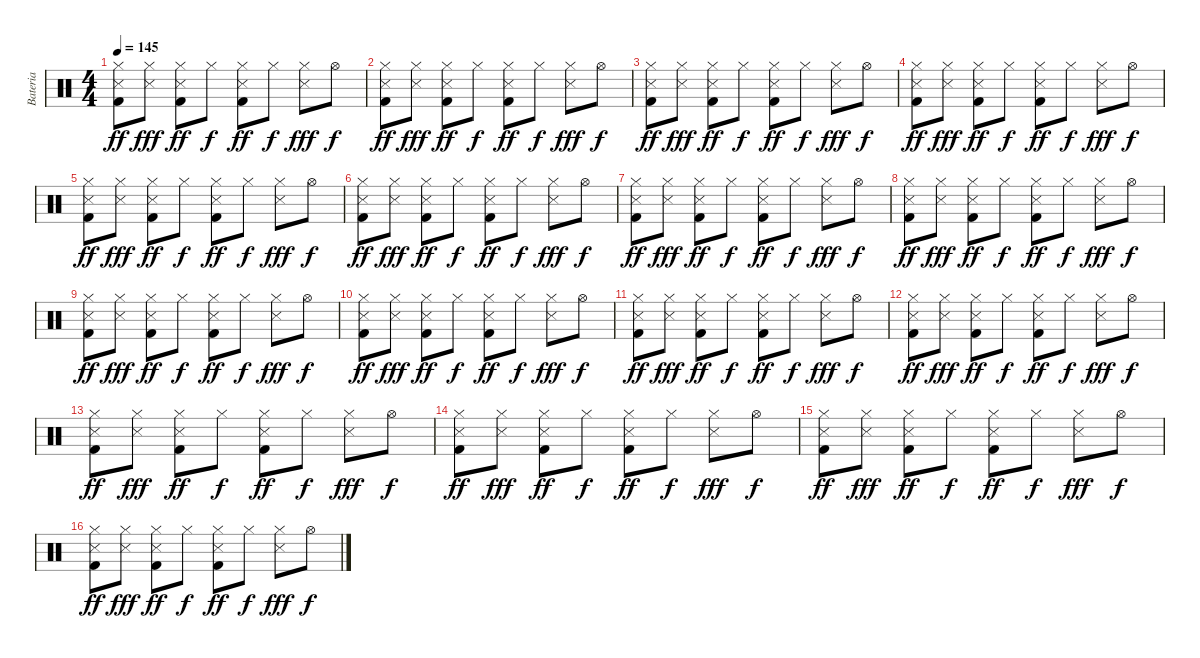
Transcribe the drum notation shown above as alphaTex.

\track ("Bateria" "Bateria") {instrument percussion}
\staff {score}
\articulation defaults
\ts (4 4)
\tempo 145
\clef neutral
\ks c
("Hi-Hat (closed)" "Snare (side stick) 3" "Kick (hit) 2").8{dy ff} ("Hi-Hat (closed)" "Snare (side stick) 3").8{dy fff} ("Hi-Hat (closed)" "Snare (side stick) 3" "Kick (hit) 2").8{dy ff} "Hi-Hat (closed)".8{dy f} ("Hi-Hat (closed)" "Snare (side stick) 3" "Kick (hit) 2").8{dy ff} "Hi-Hat (closed)".8{dy f} ("Hi-Hat (closed)" "Snare (side stick) 3").8{dy fff} "Hi-Hat (open)".8{dy f} |
("Hi-Hat (closed)" "Snare (side stick) 3" "Kick (hit) 2").8{dy ff} ("Hi-Hat (closed)" "Snare (side stick) 3").8{dy fff} ("Hi-Hat (closed)" "Snare (side stick) 3" "Kick (hit) 2").8{dy ff} "Hi-Hat (closed)".8{dy f} ("Hi-Hat (closed)" "Snare (side stick) 3" "Kick (hit) 2").8{dy ff} "Hi-Hat (closed)".8{dy f} ("Hi-Hat (closed)" "Snare (side stick) 3").8{dy fff} "Hi-Hat (open)".8{dy f} |
("Hi-Hat (closed)" "Snare (side stick) 3" "Kick (hit) 2").8{dy ff} ("Hi-Hat (closed)" "Snare (side stick) 3").8{dy fff} ("Hi-Hat (closed)" "Snare (side stick) 3" "Kick (hit) 2").8{dy ff} "Hi-Hat (closed)".8{dy f} ("Hi-Hat (closed)" "Snare (side stick) 3" "Kick (hit) 2").8{dy ff} "Hi-Hat (closed)".8{dy f} ("Hi-Hat (closed)" "Snare (side stick) 3").8{dy fff} "Hi-Hat (open)".8{dy f} |
("Hi-Hat (closed)" "Snare (side stick) 3" "Kick (hit) 2").8{dy ff} ("Hi-Hat (closed)" "Snare (side stick) 3").8{dy fff} ("Hi-Hat (closed)" "Snare (side stick) 3" "Kick (hit) 2").8{dy ff} "Hi-Hat (closed)".8{dy f} ("Hi-Hat (closed)" "Snare (side stick) 3" "Kick (hit) 2").8{dy ff} "Hi-Hat (closed)".8{dy f} ("Hi-Hat (closed)" "Snare (side stick) 3").8{dy fff} "Hi-Hat (open)".8{dy f} |
("Hi-Hat (closed)" "Snare (side stick) 3" "Kick (hit) 2").8{dy ff} ("Hi-Hat (closed)" "Snare (side stick) 3").8{dy fff} ("Hi-Hat (closed)" "Snare (side stick) 3" "Kick (hit) 2").8{dy ff} "Hi-Hat (closed)".8{dy f} ("Hi-Hat (closed)" "Snare (side stick) 3" "Kick (hit) 2").8{dy ff} "Hi-Hat (closed)".8{dy f} ("Hi-Hat (closed)" "Snare (side stick) 3").8{dy fff} "Hi-Hat (open)".8{dy f} |
("Hi-Hat (closed)" "Snare (side stick) 3" "Kick (hit) 2").8{dy ff} ("Hi-Hat (closed)" "Snare (side stick) 3").8{dy fff} ("Hi-Hat (closed)" "Snare (side stick) 3" "Kick (hit) 2").8{dy ff} "Hi-Hat (closed)".8{dy f} ("Hi-Hat (closed)" "Snare (side stick) 3" "Kick (hit) 2").8{dy ff} "Hi-Hat (closed)".8{dy f} ("Hi-Hat (closed)" "Snare (side stick) 3").8{dy fff} "Hi-Hat (open)".8{dy f} |
("Hi-Hat (closed)" "Snare (side stick) 3" "Kick (hit) 2").8{dy ff} ("Hi-Hat (closed)" "Snare (side stick) 3").8{dy fff} ("Hi-Hat (closed)" "Snare (side stick) 3" "Kick (hit) 2").8{dy ff} "Hi-Hat (closed)".8{dy f} ("Hi-Hat (closed)" "Snare (side stick) 3" "Kick (hit) 2").8{dy ff} "Hi-Hat (closed)".8{dy f} ("Hi-Hat (closed)" "Snare (side stick) 3").8{dy fff} "Hi-Hat (open)".8{dy f} |
("Hi-Hat (closed)" "Snare (side stick) 3" "Kick (hit) 2").8{dy ff} ("Hi-Hat (closed)" "Snare (side stick) 3").8{dy fff} ("Hi-Hat (closed)" "Snare (side stick) 3" "Kick (hit) 2").8{dy ff} "Hi-Hat (closed)".8{dy f} ("Hi-Hat (closed)" "Snare (side stick) 3" "Kick (hit) 2").8{dy ff} "Hi-Hat (closed)".8{dy f} ("Hi-Hat (closed)" "Snare (side stick) 3").8{dy fff} "Hi-Hat (open)".8{dy f} |
("Hi-Hat (closed)" "Snare (side stick) 3" "Kick (hit) 2").8{dy ff} ("Hi-Hat (closed)" "Snare (side stick) 3").8{dy fff} ("Hi-Hat (closed)" "Snare (side stick) 3" "Kick (hit) 2").8{dy ff} "Hi-Hat (closed)".8{dy f} ("Hi-Hat (closed)" "Snare (side stick) 3" "Kick (hit) 2").8{dy ff} "Hi-Hat (closed)".8{dy f} ("Hi-Hat (closed)" "Snare (side stick) 3").8{dy fff} "Hi-Hat (open)".8{dy f} |
("Hi-Hat (closed)" "Snare (side stick) 3" "Kick (hit) 2").8{dy ff} ("Hi-Hat (closed)" "Snare (side stick) 3").8{dy fff} ("Hi-Hat (closed)" "Snare (side stick) 3" "Kick (hit) 2").8{dy ff} "Hi-Hat (closed)".8{dy f} ("Hi-Hat (closed)" "Snare (side stick) 3" "Kick (hit) 2").8{dy ff} "Hi-Hat (closed)".8{dy f} ("Hi-Hat (closed)" "Snare (side stick) 3").8{dy fff} "Hi-Hat (open)".8{dy f} |
("Hi-Hat (closed)" "Snare (side stick) 3" "Kick (hit) 2").8{dy ff} ("Hi-Hat (closed)" "Snare (side stick) 3").8{dy fff} ("Hi-Hat (closed)" "Snare (side stick) 3" "Kick (hit) 2").8{dy ff} "Hi-Hat (closed)".8{dy f} ("Hi-Hat (closed)" "Snare (side stick) 3" "Kick (hit) 2").8{dy ff} "Hi-Hat (closed)".8{dy f} ("Hi-Hat (closed)" "Snare (side stick) 3").8{dy fff} "Hi-Hat (open)".8{dy f} |
("Hi-Hat (closed)" "Snare (side stick) 3" "Kick (hit) 2").8{dy ff} ("Hi-Hat (closed)" "Snare (side stick) 3").8{dy fff} ("Hi-Hat (closed)" "Snare (side stick) 3" "Kick (hit) 2").8{dy ff} "Hi-Hat (closed)".8{dy f} ("Hi-Hat (closed)" "Snare (side stick) 3" "Kick (hit) 2").8{dy ff} "Hi-Hat (closed)".8{dy f} ("Hi-Hat (closed)" "Snare (side stick) 3").8{dy fff} "Hi-Hat (open)".8{dy f} |
("Hi-Hat (closed)" "Snare (side stick) 3" "Kick (hit) 2").8{dy ff} ("Hi-Hat (closed)" "Snare (side stick) 3").8{dy fff} ("Hi-Hat (closed)" "Snare (side stick) 3" "Kick (hit) 2").8{dy ff} "Hi-Hat (closed)".8{dy f} ("Hi-Hat (closed)" "Snare (side stick) 3" "Kick (hit) 2").8{dy ff} "Hi-Hat (closed)".8{dy f} ("Hi-Hat (closed)" "Snare (side stick) 3").8{dy fff} "Hi-Hat (open)".8{dy f} |
("Hi-Hat (closed)" "Snare (side stick) 3" "Kick (hit) 2").8{dy ff} ("Hi-Hat (closed)" "Snare (side stick) 3").8{dy fff} ("Hi-Hat (closed)" "Snare (side stick) 3" "Kick (hit) 2").8{dy ff} "Hi-Hat (closed)".8{dy f} ("Hi-Hat (closed)" "Snare (side stick) 3" "Kick (hit) 2").8{dy ff} "Hi-Hat (closed)".8{dy f} ("Hi-Hat (closed)" "Snare (side stick) 3").8{dy fff} "Hi-Hat (open)".8{dy f} |
("Hi-Hat (closed)" "Snare (side stick) 3" "Kick (hit) 2").8{dy ff} ("Hi-Hat (closed)" "Snare (side stick) 3").8{dy fff} ("Hi-Hat (closed)" "Snare (side stick) 3" "Kick (hit) 2").8{dy ff} "Hi-Hat (closed)".8{dy f} ("Hi-Hat (closed)" "Snare (side stick) 3" "Kick (hit) 2").8{dy ff} "Hi-Hat (closed)".8{dy f} ("Hi-Hat (closed)" "Snare (side stick) 3").8{dy fff} "Hi-Hat (open)".8{dy f} |
("Hi-Hat (closed)" "Snare (side stick) 3" "Kick (hit) 2").8{dy ff} ("Hi-Hat (closed)" "Snare (side stick) 3").8{dy fff} ("Hi-Hat (closed)" "Snare (side stick) 3" "Kick (hit) 2").8{dy ff} "Hi-Hat (closed)".8{dy f} ("Hi-Hat (closed)" "Snare (side stick) 3" "Kick (hit) 2").8{dy ff} "Hi-Hat (closed)".8{dy f} ("Hi-Hat (closed)" "Snare (side stick) 3").8{dy fff} "Hi-Hat (open)".8{dy f}
